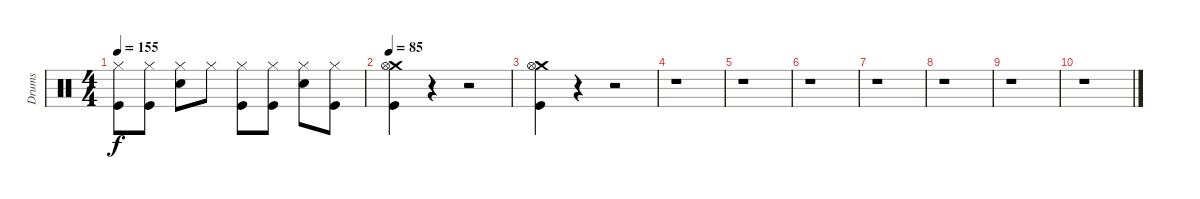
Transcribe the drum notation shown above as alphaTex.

\track ("Drums" "Drums") {instrument percussion}
\staff {score}
\articulation defaults
\ts (4 4)
\tempo 155
\clef neutral
\ks c
("Hi-Hat (closed)" "Kick (hit)").8{dy f} ("Hi-Hat (closed)" "Kick (hit)").8 ("Hi-Hat (closed)" "Snare (hit) 2").8 "Hi-Hat (closed)".8 ("Hi-Hat (closed)" "Kick (hit)").8 ("Hi-Hat (closed)" "Kick (hit)").8 ("Hi-Hat (closed)" "Snare (hit) 2").8 ("Hi-Hat (closed)" "Kick (hit)").8 |
\tempo 85
("Crash medium (hit)" "Hi-Hat (open)" "Kick (hit)").4 r.4 r.2 |
("Crash medium (hit)" "Hi-Hat (open)" "Kick (hit)").4 r.4 r.2 |
r.1 |
r.1 |
r.1 |
r.1 |
r.1 |
r.1 |
r.1
